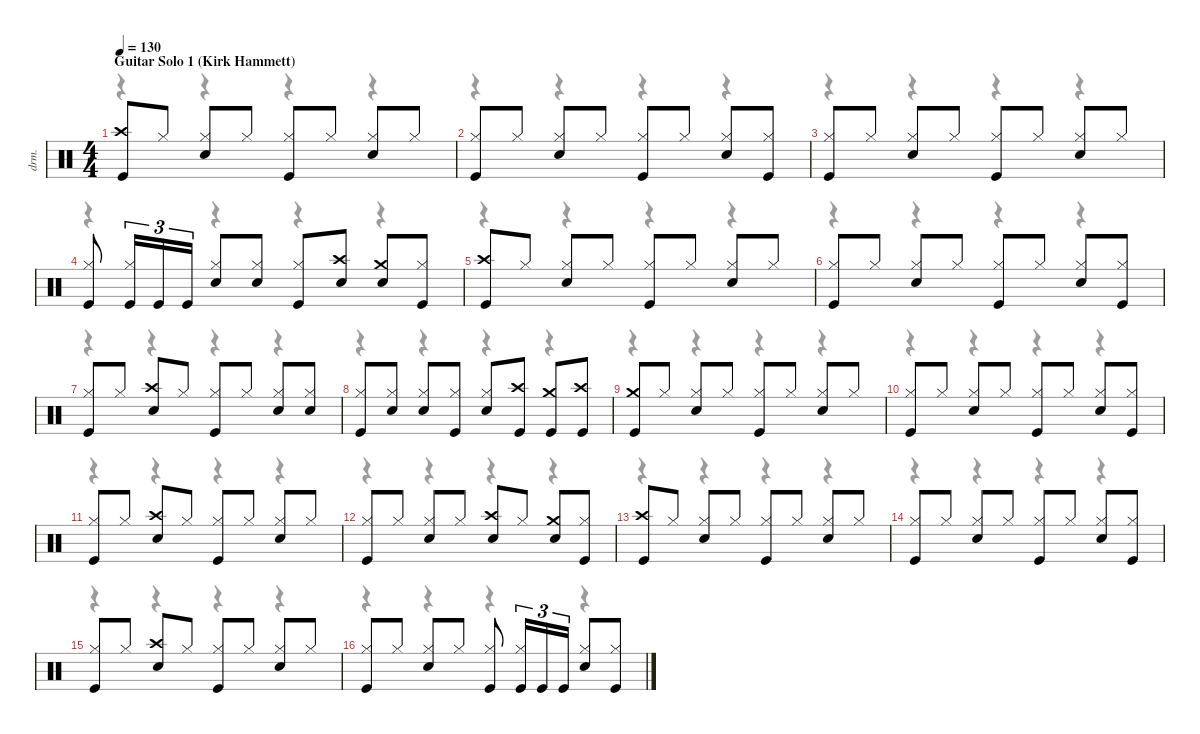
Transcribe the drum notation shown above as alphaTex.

\defaultSystemsLayout 4
\hideDynamics
\bracketExtendMode nobrackets
\track ("Lars Ulrich - Drums" "drm.") {instrument percussion}
\staff {score}
\articulation defaults
\voice
\ts (4 4)
\section ("" "Guitar Solo 1 (Kirk Hammett)")
\tempo 130
\clef neutral
\ks c
("Crash high (hit)" "Kick (hit)").8{dy f} "Hi-Hat (closed)".8 ("Hi-Hat (closed)" "Snare (hit) 2").8 "Hi-Hat (closed)".8 ("Hi-Hat (closed)" "Kick (hit)").8 "Hi-Hat (closed)".8 ("Hi-Hat (closed)" "Snare (hit) 2").8 "Hi-Hat (closed)".8 |
("Hi-Hat (closed)" "Kick (hit)").8 "Hi-Hat (closed)".8 ("Hi-Hat (closed)" "Snare (hit) 2").8 "Hi-Hat (closed)".8 ("Hi-Hat (closed)" "Kick (hit)").8 "Hi-Hat (closed)".8 ("Hi-Hat (closed)" "Snare (hit) 2").8 ("Hi-Hat (closed)" "Kick (hit)").8 |
("Hi-Hat (closed)" "Kick (hit)").8 "Hi-Hat (closed)".8 ("Hi-Hat (closed)" "Snare (hit) 2").8 "Hi-Hat (closed)".8 ("Hi-Hat (closed)" "Kick (hit)").8 "Hi-Hat (closed)".8 ("Hi-Hat (closed)" "Snare (hit) 2").8 "Hi-Hat (closed)".8 |
("Hi-Hat (closed)" "Kick (hit)").8 ("Hi-Hat (closed)" "Kick (hit)").16{tu (3 2)} "Kick (hit)".16{tu (3 2)} "Kick (hit)".16{tu (3 2)} ("Hi-Hat (closed)" "Snare (hit) 2").8 ("Hi-Hat (closed)" "Snare (hit) 2").8 ("Hi-Hat (closed)" "Kick (hit)").8 ("Crash high (hit)" "Snare (hit) 2").8 ("Crash medium (hit)" "Snare (hit) 2").8 ("Hi-Hat (closed)" "Kick (hit)").8 |
("Crash high (hit)" "Kick (hit)").8 "Hi-Hat (closed)".8 ("Hi-Hat (closed)" "Snare (hit) 2").8 "Hi-Hat (closed)".8 ("Hi-Hat (closed)" "Kick (hit)").8 "Hi-Hat (closed)".8 ("Hi-Hat (closed)" "Snare (hit) 2").8 "Hi-Hat (closed)".8 |
("Hi-Hat (closed)" "Kick (hit)").8 "Hi-Hat (closed)".8 ("Hi-Hat (closed)" "Snare (hit) 2").8 "Hi-Hat (closed)".8 ("Hi-Hat (closed)" "Kick (hit)").8 "Hi-Hat (closed)".8 ("Hi-Hat (closed)" "Snare (hit) 2").8 ("Hi-Hat (closed)" "Kick (hit)").8 |
("Hi-Hat (closed)" "Kick (hit)").8 "Hi-Hat (closed)".8 ("Crash high (hit)" "Snare (hit) 2").8 "Hi-Hat (closed)".8 ("Hi-Hat (closed)" "Kick (hit)").8 "Hi-Hat (closed)".8 ("Hi-Hat (closed)" "Snare (hit) 2").8 ("Hi-Hat (closed)" "Snare (hit) 2").8 |
("Hi-Hat (closed)" "Kick (hit)").8 ("Hi-Hat (closed)" "Snare (hit) 2").8 ("Hi-Hat (closed)" "Snare (hit) 2").8 ("Hi-Hat (closed)" "Kick (hit)").8 ("Hi-Hat (closed)" "Snare (hit) 2").8 ("Crash high (hit)" "Kick (hit)").8 ("Crash medium (hit)" "Kick (hit)").8 ("Crash high (hit)" "Kick (hit)").8 |
("Crash medium (hit)" "Kick (hit)").8 "Hi-Hat (closed)".8 ("Hi-Hat (closed)" "Snare (hit) 2").8 "Hi-Hat (closed)".8 ("Hi-Hat (closed)" "Kick (hit)").8 "Hi-Hat (closed)".8 ("Hi-Hat (closed)" "Snare (hit) 2").8 "Hi-Hat (closed)".8 |
("Hi-Hat (closed)" "Kick (hit)").8 "Hi-Hat (closed)".8 ("Hi-Hat (closed)" "Snare (hit) 2").8 "Hi-Hat (closed)".8 ("Hi-Hat (closed)" "Kick (hit)").8 "Hi-Hat (closed)".8 ("Hi-Hat (closed)" "Snare (hit) 2").8 ("Hi-Hat (closed)" "Kick (hit)").8 |
("Hi-Hat (closed)" "Kick (hit)").8 "Hi-Hat (closed)".8 ("Crash high (hit)" "Snare (hit) 2").8 "Hi-Hat (closed)".8 ("Hi-Hat (closed)" "Kick (hit)").8 "Hi-Hat (closed)".8 ("Hi-Hat (closed)" "Snare (hit) 2").8 "Hi-Hat (closed)".8 |
("Hi-Hat (closed)" "Kick (hit)").8 "Hi-Hat (closed)".8 ("Hi-Hat (closed)" "Snare (hit) 2").8 "Hi-Hat (closed)".8 ("Crash high (hit)" "Snare (hit) 2").8 "Hi-Hat (closed)".8 ("Crash medium (hit)" "Snare (hit) 2").8 ("Hi-Hat (closed)" "Kick (hit)").8 |
("Crash high (hit)" "Kick (hit)").8 "Hi-Hat (closed)".8 ("Hi-Hat (closed)" "Snare (hit) 2").8 "Hi-Hat (closed)".8 ("Hi-Hat (closed)" "Kick (hit)").8 "Hi-Hat (closed)".8 ("Hi-Hat (closed)" "Snare (hit) 2").8 "Hi-Hat (closed)".8 |
("Hi-Hat (closed)" "Kick (hit)").8 "Hi-Hat (closed)".8 ("Hi-Hat (closed)" "Snare (hit) 2").8 "Hi-Hat (closed)".8 ("Hi-Hat (closed)" "Kick (hit)").8 "Hi-Hat (closed)".8 ("Hi-Hat (closed)" "Snare (hit) 2").8 ("Hi-Hat (closed)" "Kick (hit)").8 |
("Hi-Hat (closed)" "Kick (hit)").8 "Hi-Hat (closed)".8 ("Crash high (hit)" "Snare (hit) 2").8 "Hi-Hat (closed)".8 ("Hi-Hat (closed)" "Kick (hit)").8 "Hi-Hat (closed)".8 ("Hi-Hat (closed)" "Snare (hit) 2").8 "Hi-Hat (closed)".8 |
("Hi-Hat (closed)" "Kick (hit)").8 "Hi-Hat (closed)".8 ("Hi-Hat (closed)" "Snare (hit) 2").8 "Hi-Hat (closed)".8 ("Hi-Hat (closed)" "Kick (hit)").8 ("Hi-Hat (closed)" "Kick (hit)").16{tu (3 2)} "Kick (hit)".16{tu (3 2)} "Kick (hit)".16{tu (3 2)} ("Hi-Hat (closed)" "Snare (hit) 2").8 ("Hi-Hat (closed)" "Kick (hit)").8
\voice
\clef neutral
\ottava regular
\simile none
\ks c
r.4{dy mf} r.4 r.4 r.4 |
r.4 r.4 r.4 r.4 |
r.4 r.4 r.4 r.4 |
r.4 r.4 r.4 r.4 |
r.4 r.4 r.4 r.4 |
r.4 r.4 r.4 r.4 |
r.4 r.4 r.4 r.4 |
r.4 r.4 r.4 r.4 |
r.4 r.4 r.4 r.4 |
r.4 r.4 r.4 r.4 |
r.4 r.4 r.4 r.4 |
r.4 r.4 r.4 r.4 |
r.4 r.4 r.4 r.4 |
r.4 r.4 r.4 r.4 |
r.4 r.4 r.4 r.4 |
r.4 r.4 r.4 r.4
